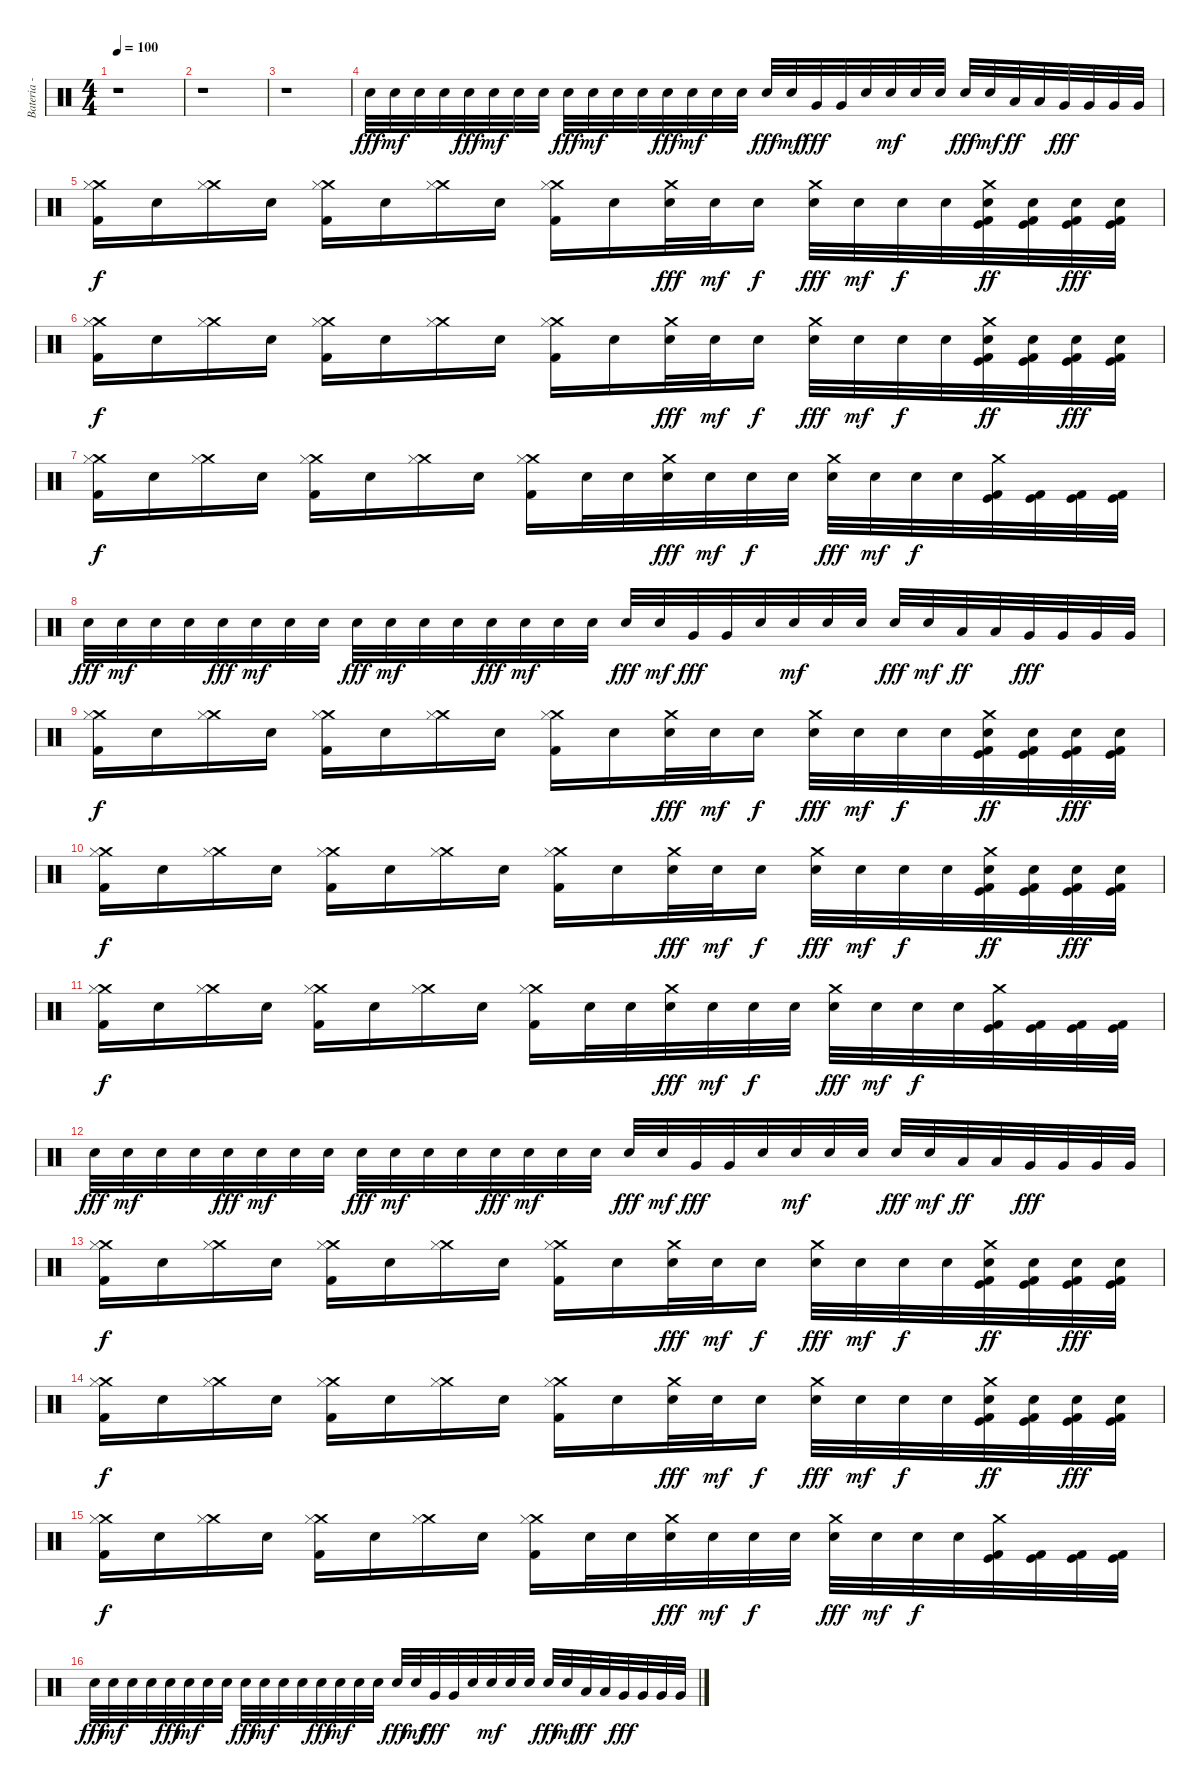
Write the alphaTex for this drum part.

\track ("Bateria - Drums - Searching after F Mike" "Bateria - ") {instrument percussion}
\staff {score}
\articulation defaults
\ts (4 4)
\tempo 100
\clef neutral
\ks c
r.1{dy fff} |
r.1 |
r.1 |
"Electric Snare (hit)".32 "Electric Snare (hit)".32{dy mf} "Electric Snare (hit)".32 "Electric Snare (hit)".32 "Electric Snare (hit)".32{dy fff} "Electric Snare (hit)".32{dy mf} "Electric Snare (hit)".32 "Electric Snare (hit)".32 "Electric Snare (hit)".32{dy fff} "Electric Snare (hit)".32{dy mf} "Electric Snare (hit)".32 "Electric Snare (hit)".32 "Electric Snare (hit)".32{dy fff} "Electric Snare (hit)".32{dy mf} "Electric Snare (hit)".32 "Electric Snare (hit)".32 "Electric Snare (hit)".32{dy fff} "Electric Snare (hit)".32{dy mf} "Very Low Tom (hit)".32{dy fff} "Very Low Tom (hit)".32 "Electric Snare (hit)".32 "Electric Snare (hit)".32{dy mf} "Electric Snare (hit)".32 "Electric Snare (hit)".32 "Electric Snare (hit)".32{dy fff} "Electric Snare (hit)".32{dy mf} "Low Tom (hit)".32{dy ff} "Low Tom (hit)".32 "Very Low Tom (hit)".32{dy fff} "Very Low Tom (hit)".32 "Very Low Tom (hit)".32 "Very Low Tom (hit)".32 |
("Crash medium (hit)" "Hi-Hat (closed)" "Kick (hit) 2").16{dy f} "Electric Snare (hit)".16 ("Crash medium (hit)" "Hi-Hat (closed)").16 "Electric Snare (hit)".16 ("Crash medium (hit)" "Hi-Hat (closed)" "Kick (hit) 2").16 "Electric Snare (hit)".16 ("Crash medium (hit)" "Hi-Hat (closed)").16 "Electric Snare (hit)".16 ("Crash medium (hit)" "Hi-Hat (closed)" "Kick (hit) 2").16 "Electric Snare (hit)".16 ("Crash medium (hit)" "Electric Snare (hit)").32{dy fff} "Electric Snare (hit)".32{dy mf} "Electric Snare (hit)".16{dy f} ("Crash medium (hit)" "Electric Snare (hit)").32{dy fff} "Electric Snare (hit)".32{dy mf} "Electric Snare (hit)".32{dy f} "Electric Snare (hit)".32 ("Crash medium (hit)" "Kick (hit) 2" "Electric Snare (hit)" "Kick (hit)").32{dy ff} ("Kick (hit) 2" "Electric Snare (hit)" "Kick (hit)").32 ("Kick (hit) 2" "Electric Snare (hit)" "Kick (hit)").32{dy fff} ("Kick (hit) 2" "Electric Snare (hit)" "Kick (hit)").32 |
("Crash medium (hit)" "Hi-Hat (closed)" "Kick (hit) 2").16{dy f} "Electric Snare (hit)".16 ("Crash medium (hit)" "Hi-Hat (closed)").16 "Electric Snare (hit)".16 ("Crash medium (hit)" "Hi-Hat (closed)" "Kick (hit) 2").16 "Electric Snare (hit)".16 ("Crash medium (hit)" "Hi-Hat (closed)").16 "Electric Snare (hit)".16 ("Crash medium (hit)" "Hi-Hat (closed)" "Kick (hit) 2").16 "Electric Snare (hit)".16 ("Crash medium (hit)" "Electric Snare (hit)").32{dy fff} "Electric Snare (hit)".32{dy mf} "Electric Snare (hit)".16{dy f} ("Crash medium (hit)" "Electric Snare (hit)").32{dy fff} "Electric Snare (hit)".32{dy mf} "Electric Snare (hit)".32{dy f} "Electric Snare (hit)".32 ("Crash medium (hit)" "Kick (hit) 2" "Electric Snare (hit)" "Kick (hit)").32{dy ff} ("Kick (hit) 2" "Electric Snare (hit)" "Kick (hit)").32 ("Kick (hit) 2" "Electric Snare (hit)" "Kick (hit)").32{dy fff} ("Kick (hit) 2" "Electric Snare (hit)" "Kick (hit)").32 |
("Crash medium (hit)" "Hi-Hat (closed)" "Kick (hit) 2").16{dy f} "Electric Snare (hit)".16 ("Crash medium (hit)" "Hi-Hat (closed)").16 "Electric Snare (hit)".16 ("Crash medium (hit)" "Hi-Hat (closed)" "Kick (hit) 2").16 "Electric Snare (hit)".16 ("Crash medium (hit)" "Hi-Hat (closed)").16 "Electric Snare (hit)".16 ("Crash medium (hit)" "Hi-Hat (closed)" "Kick (hit) 2").16 "Electric Snare (hit)".32 "Electric Snare (hit)".32 ("Crash medium (hit)" "Electric Snare (hit)").32{dy fff} "Electric Snare (hit)".32{dy mf} "Electric Snare (hit)".32{dy f} "Electric Snare (hit)".32 ("Crash medium (hit)" "Electric Snare (hit)").32{dy fff} "Electric Snare (hit)".32{dy mf} "Electric Snare (hit)".32{dy f} "Electric Snare (hit)".32 ("Crash medium (hit)" "Kick (hit) 2" "Kick (hit)").32 ("Kick (hit) 2" "Kick (hit)").32 ("Kick (hit) 2" "Kick (hit)").32 ("Kick (hit) 2" "Kick (hit)").32 |
"Electric Snare (hit)".32{dy fff} "Electric Snare (hit)".32{dy mf} "Electric Snare (hit)".32 "Electric Snare (hit)".32 "Electric Snare (hit)".32{dy fff} "Electric Snare (hit)".32{dy mf} "Electric Snare (hit)".32 "Electric Snare (hit)".32 "Electric Snare (hit)".32{dy fff} "Electric Snare (hit)".32{dy mf} "Electric Snare (hit)".32 "Electric Snare (hit)".32 "Electric Snare (hit)".32{dy fff} "Electric Snare (hit)".32{dy mf} "Electric Snare (hit)".32 "Electric Snare (hit)".32 "Electric Snare (hit)".32{dy fff} "Electric Snare (hit)".32{dy mf} "Very Low Tom (hit)".32{dy fff} "Very Low Tom (hit)".32 "Electric Snare (hit)".32 "Electric Snare (hit)".32{dy mf} "Electric Snare (hit)".32 "Electric Snare (hit)".32 "Electric Snare (hit)".32{dy fff} "Electric Snare (hit)".32{dy mf} "Low Tom (hit)".32{dy ff} "Low Tom (hit)".32 "Very Low Tom (hit)".32{dy fff} "Very Low Tom (hit)".32 "Very Low Tom (hit)".32 "Very Low Tom (hit)".32 |
("Crash medium (hit)" "Hi-Hat (closed)" "Kick (hit) 2").16{dy f} "Electric Snare (hit)".16 ("Crash medium (hit)" "Hi-Hat (closed)").16 "Electric Snare (hit)".16 ("Crash medium (hit)" "Hi-Hat (closed)" "Kick (hit) 2").16 "Electric Snare (hit)".16 ("Crash medium (hit)" "Hi-Hat (closed)").16 "Electric Snare (hit)".16 ("Crash medium (hit)" "Hi-Hat (closed)" "Kick (hit) 2").16 "Electric Snare (hit)".16 ("Crash medium (hit)" "Electric Snare (hit)").32{dy fff} "Electric Snare (hit)".32{dy mf} "Electric Snare (hit)".16{dy f} ("Crash medium (hit)" "Electric Snare (hit)").32{dy fff} "Electric Snare (hit)".32{dy mf} "Electric Snare (hit)".32{dy f} "Electric Snare (hit)".32 ("Crash medium (hit)" "Kick (hit) 2" "Electric Snare (hit)" "Kick (hit)").32{dy ff} ("Kick (hit) 2" "Electric Snare (hit)" "Kick (hit)").32 ("Kick (hit) 2" "Electric Snare (hit)" "Kick (hit)").32{dy fff} ("Kick (hit) 2" "Electric Snare (hit)" "Kick (hit)").32 |
("Crash medium (hit)" "Hi-Hat (closed)" "Kick (hit) 2").16{dy f} "Electric Snare (hit)".16 ("Crash medium (hit)" "Hi-Hat (closed)").16 "Electric Snare (hit)".16 ("Crash medium (hit)" "Hi-Hat (closed)" "Kick (hit) 2").16 "Electric Snare (hit)".16 ("Crash medium (hit)" "Hi-Hat (closed)").16 "Electric Snare (hit)".16 ("Crash medium (hit)" "Hi-Hat (closed)" "Kick (hit) 2").16 "Electric Snare (hit)".16 ("Crash medium (hit)" "Electric Snare (hit)").32{dy fff} "Electric Snare (hit)".32{dy mf} "Electric Snare (hit)".16{dy f} ("Crash medium (hit)" "Electric Snare (hit)").32{dy fff} "Electric Snare (hit)".32{dy mf} "Electric Snare (hit)".32{dy f} "Electric Snare (hit)".32 ("Crash medium (hit)" "Kick (hit) 2" "Electric Snare (hit)" "Kick (hit)").32{dy ff} ("Kick (hit) 2" "Electric Snare (hit)" "Kick (hit)").32 ("Kick (hit) 2" "Electric Snare (hit)" "Kick (hit)").32{dy fff} ("Kick (hit) 2" "Electric Snare (hit)" "Kick (hit)").32 |
("Crash medium (hit)" "Hi-Hat (closed)" "Kick (hit) 2").16{dy f} "Electric Snare (hit)".16 ("Crash medium (hit)" "Hi-Hat (closed)").16 "Electric Snare (hit)".16 ("Crash medium (hit)" "Hi-Hat (closed)" "Kick (hit) 2").16 "Electric Snare (hit)".16 ("Crash medium (hit)" "Hi-Hat (closed)").16 "Electric Snare (hit)".16 ("Crash medium (hit)" "Hi-Hat (closed)" "Kick (hit) 2").16 "Electric Snare (hit)".32 "Electric Snare (hit)".32 ("Crash medium (hit)" "Electric Snare (hit)").32{dy fff} "Electric Snare (hit)".32{dy mf} "Electric Snare (hit)".32{dy f} "Electric Snare (hit)".32 ("Crash medium (hit)" "Electric Snare (hit)").32{dy fff} "Electric Snare (hit)".32{dy mf} "Electric Snare (hit)".32{dy f} "Electric Snare (hit)".32 ("Crash medium (hit)" "Kick (hit) 2" "Kick (hit)").32 ("Kick (hit) 2" "Kick (hit)").32 ("Kick (hit) 2" "Kick (hit)").32 ("Kick (hit) 2" "Kick (hit)").32 |
"Electric Snare (hit)".32{dy fff} "Electric Snare (hit)".32{dy mf} "Electric Snare (hit)".32 "Electric Snare (hit)".32 "Electric Snare (hit)".32{dy fff} "Electric Snare (hit)".32{dy mf} "Electric Snare (hit)".32 "Electric Snare (hit)".32 "Electric Snare (hit)".32{dy fff} "Electric Snare (hit)".32{dy mf} "Electric Snare (hit)".32 "Electric Snare (hit)".32 "Electric Snare (hit)".32{dy fff} "Electric Snare (hit)".32{dy mf} "Electric Snare (hit)".32 "Electric Snare (hit)".32 "Electric Snare (hit)".32{dy fff} "Electric Snare (hit)".32{dy mf} "Very Low Tom (hit)".32{dy fff} "Very Low Tom (hit)".32 "Electric Snare (hit)".32 "Electric Snare (hit)".32{dy mf} "Electric Snare (hit)".32 "Electric Snare (hit)".32 "Electric Snare (hit)".32{dy fff} "Electric Snare (hit)".32{dy mf} "Low Tom (hit)".32{dy ff} "Low Tom (hit)".32 "Very Low Tom (hit)".32{dy fff} "Very Low Tom (hit)".32 "Very Low Tom (hit)".32 "Very Low Tom (hit)".32 |
("Crash medium (hit)" "Hi-Hat (closed)" "Kick (hit) 2").16{dy f} "Electric Snare (hit)".16 ("Crash medium (hit)" "Hi-Hat (closed)").16 "Electric Snare (hit)".16 ("Crash medium (hit)" "Hi-Hat (closed)" "Kick (hit) 2").16 "Electric Snare (hit)".16 ("Crash medium (hit)" "Hi-Hat (closed)").16 "Electric Snare (hit)".16 ("Crash medium (hit)" "Hi-Hat (closed)" "Kick (hit) 2").16 "Electric Snare (hit)".16 ("Crash medium (hit)" "Electric Snare (hit)").32{dy fff} "Electric Snare (hit)".32{dy mf} "Electric Snare (hit)".16{dy f} ("Crash medium (hit)" "Electric Snare (hit)").32{dy fff} "Electric Snare (hit)".32{dy mf} "Electric Snare (hit)".32{dy f} "Electric Snare (hit)".32 ("Crash medium (hit)" "Kick (hit) 2" "Electric Snare (hit)" "Kick (hit)").32{dy ff} ("Kick (hit) 2" "Electric Snare (hit)" "Kick (hit)").32 ("Kick (hit) 2" "Electric Snare (hit)" "Kick (hit)").32{dy fff} ("Kick (hit) 2" "Electric Snare (hit)" "Kick (hit)").32 |
("Crash medium (hit)" "Hi-Hat (closed)" "Kick (hit) 2").16{dy f} "Electric Snare (hit)".16 ("Crash medium (hit)" "Hi-Hat (closed)").16 "Electric Snare (hit)".16 ("Crash medium (hit)" "Hi-Hat (closed)" "Kick (hit) 2").16 "Electric Snare (hit)".16 ("Crash medium (hit)" "Hi-Hat (closed)").16 "Electric Snare (hit)".16 ("Crash medium (hit)" "Hi-Hat (closed)" "Kick (hit) 2").16 "Electric Snare (hit)".16 ("Crash medium (hit)" "Electric Snare (hit)").32{dy fff} "Electric Snare (hit)".32{dy mf} "Electric Snare (hit)".16{dy f} ("Crash medium (hit)" "Electric Snare (hit)").32{dy fff} "Electric Snare (hit)".32{dy mf} "Electric Snare (hit)".32{dy f} "Electric Snare (hit)".32 ("Crash medium (hit)" "Kick (hit) 2" "Electric Snare (hit)" "Kick (hit)").32{dy ff} ("Kick (hit) 2" "Electric Snare (hit)" "Kick (hit)").32 ("Kick (hit) 2" "Electric Snare (hit)" "Kick (hit)").32{dy fff} ("Kick (hit) 2" "Electric Snare (hit)" "Kick (hit)").32 |
("Crash medium (hit)" "Hi-Hat (closed)" "Kick (hit) 2").16{dy f} "Electric Snare (hit)".16 ("Crash medium (hit)" "Hi-Hat (closed)").16 "Electric Snare (hit)".16 ("Crash medium (hit)" "Hi-Hat (closed)" "Kick (hit) 2").16 "Electric Snare (hit)".16 ("Crash medium (hit)" "Hi-Hat (closed)").16 "Electric Snare (hit)".16 ("Crash medium (hit)" "Hi-Hat (closed)" "Kick (hit) 2").16 "Electric Snare (hit)".32 "Electric Snare (hit)".32 ("Crash medium (hit)" "Electric Snare (hit)").32{dy fff} "Electric Snare (hit)".32{dy mf} "Electric Snare (hit)".32{dy f} "Electric Snare (hit)".32 ("Crash medium (hit)" "Electric Snare (hit)").32{dy fff} "Electric Snare (hit)".32{dy mf} "Electric Snare (hit)".32{dy f} "Electric Snare (hit)".32 ("Crash medium (hit)" "Kick (hit) 2" "Kick (hit)").32 ("Kick (hit) 2" "Kick (hit)").32 ("Kick (hit) 2" "Kick (hit)").32 ("Kick (hit) 2" "Kick (hit)").32 |
"Electric Snare (hit)".32{dy fff} "Electric Snare (hit)".32{dy mf} "Electric Snare (hit)".32 "Electric Snare (hit)".32 "Electric Snare (hit)".32{dy fff} "Electric Snare (hit)".32{dy mf} "Electric Snare (hit)".32 "Electric Snare (hit)".32 "Electric Snare (hit)".32{dy fff} "Electric Snare (hit)".32{dy mf} "Electric Snare (hit)".32 "Electric Snare (hit)".32 "Electric Snare (hit)".32{dy fff} "Electric Snare (hit)".32{dy mf} "Electric Snare (hit)".32 "Electric Snare (hit)".32 "Electric Snare (hit)".32{dy fff} "Electric Snare (hit)".32{dy mf} "Very Low Tom (hit)".32{dy fff} "Very Low Tom (hit)".32 "Electric Snare (hit)".32 "Electric Snare (hit)".32{dy mf} "Electric Snare (hit)".32 "Electric Snare (hit)".32 "Electric Snare (hit)".32{dy fff} "Electric Snare (hit)".32{dy mf} "Low Tom (hit)".32{dy ff} "Low Tom (hit)".32 "Very Low Tom (hit)".32{dy fff} "Very Low Tom (hit)".32 "Very Low Tom (hit)".32 "Very Low Tom (hit)".32
